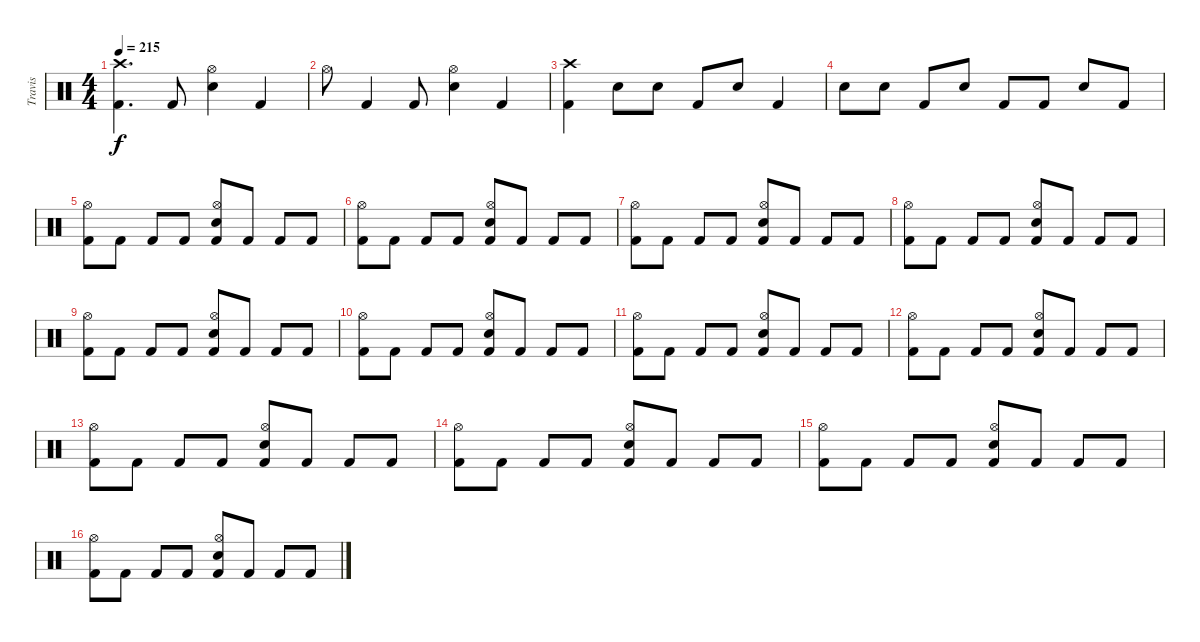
\track ("Travis" "Travis") {instrument percussion}
\staff {score}
\articulation defaults
\ts (4 4)
\tempo 215
\clef neutral
\ks c
("Crash high (hit)" "Kick (hit) 2").4{d dy f} "Kick (hit) 2".8 ("Hi-Hat (open)" "Snare (hit) 2").4 "Kick (hit) 2".4 |
"Hi-Hat (open)".8 "Kick (hit) 2".4 "Kick (hit) 2".8 ("Hi-Hat (open)" "Snare (hit) 2").4 "Kick (hit) 2".4 |
("Crash high (hit)" "Kick (hit) 2").4 "Snare (hit) 2".8 "Snare (hit) 2".8 "Kick (hit) 2".8 "Snare (hit) 2".8 "Kick (hit) 2".4 |
"Snare (hit) 2".8 "Snare (hit) 2".8 "Kick (hit) 2".8 "Snare (hit) 2".8 "Kick (hit) 2".8 "Kick (hit) 2".8 "Snare (hit) 2".8 "Kick (hit) 2".8 |
("Hi-Hat (open)" "Kick (hit) 2").8 "Kick (hit) 2".8 "Kick (hit) 2".8 "Kick (hit) 2".8 ("Hi-Hat (open)" "Snare (hit) 2" "Kick (hit) 2").8 "Kick (hit) 2".8 "Kick (hit) 2".8 "Kick (hit) 2".8 |
("Hi-Hat (open)" "Kick (hit) 2").8 "Kick (hit) 2".8 "Kick (hit) 2".8 "Kick (hit) 2".8 ("Hi-Hat (open)" "Snare (hit) 2" "Kick (hit) 2").8 "Kick (hit) 2".8 "Kick (hit) 2".8 "Kick (hit) 2".8 |
("Hi-Hat (open)" "Kick (hit) 2").8 "Kick (hit) 2".8 "Kick (hit) 2".8 "Kick (hit) 2".8 ("Hi-Hat (open)" "Snare (hit) 2" "Kick (hit) 2").8 "Kick (hit) 2".8 "Kick (hit) 2".8 "Kick (hit) 2".8 |
("Hi-Hat (open)" "Kick (hit) 2").8 "Kick (hit) 2".8 "Kick (hit) 2".8 "Kick (hit) 2".8 ("Hi-Hat (open)" "Snare (hit) 2" "Kick (hit) 2").8 "Kick (hit) 2".8 "Kick (hit) 2".8 "Kick (hit) 2".8 |
("Hi-Hat (open)" "Kick (hit) 2").8 "Kick (hit) 2".8 "Kick (hit) 2".8 "Kick (hit) 2".8 ("Hi-Hat (open)" "Snare (hit) 2" "Kick (hit) 2").8 "Kick (hit) 2".8 "Kick (hit) 2".8 "Kick (hit) 2".8 |
("Hi-Hat (open)" "Kick (hit) 2").8 "Kick (hit) 2".8 "Kick (hit) 2".8 "Kick (hit) 2".8 ("Hi-Hat (open)" "Snare (hit) 2" "Kick (hit) 2").8 "Kick (hit) 2".8 "Kick (hit) 2".8 "Kick (hit) 2".8 |
("Hi-Hat (open)" "Kick (hit) 2").8 "Kick (hit) 2".8 "Kick (hit) 2".8 "Kick (hit) 2".8 ("Hi-Hat (open)" "Snare (hit) 2" "Kick (hit) 2").8 "Kick (hit) 2".8 "Kick (hit) 2".8 "Kick (hit) 2".8 |
("Hi-Hat (open)" "Kick (hit) 2").8 "Kick (hit) 2".8 "Kick (hit) 2".8 "Kick (hit) 2".8 ("Hi-Hat (open)" "Snare (hit) 2" "Kick (hit) 2").8 "Kick (hit) 2".8 "Kick (hit) 2".8 "Kick (hit) 2".8 |
("Hi-Hat (open)" "Kick (hit) 2").8 "Kick (hit) 2".8 "Kick (hit) 2".8 "Kick (hit) 2".8 ("Hi-Hat (open)" "Snare (hit) 2" "Kick (hit) 2").8 "Kick (hit) 2".8 "Kick (hit) 2".8 "Kick (hit) 2".8 |
("Hi-Hat (open)" "Kick (hit) 2").8 "Kick (hit) 2".8 "Kick (hit) 2".8 "Kick (hit) 2".8 ("Hi-Hat (open)" "Snare (hit) 2" "Kick (hit) 2").8 "Kick (hit) 2".8 "Kick (hit) 2".8 "Kick (hit) 2".8 |
("Hi-Hat (open)" "Kick (hit) 2").8 "Kick (hit) 2".8 "Kick (hit) 2".8 "Kick (hit) 2".8 ("Hi-Hat (open)" "Snare (hit) 2" "Kick (hit) 2").8 "Kick (hit) 2".8 "Kick (hit) 2".8 "Kick (hit) 2".8 |
("Hi-Hat (open)" "Kick (hit) 2").8 "Kick (hit) 2".8 "Kick (hit) 2".8 "Kick (hit) 2".8 ("Hi-Hat (open)" "Snare (hit) 2" "Kick (hit) 2").8 "Kick (hit) 2".8 "Kick (hit) 2".8 "Kick (hit) 2".8
